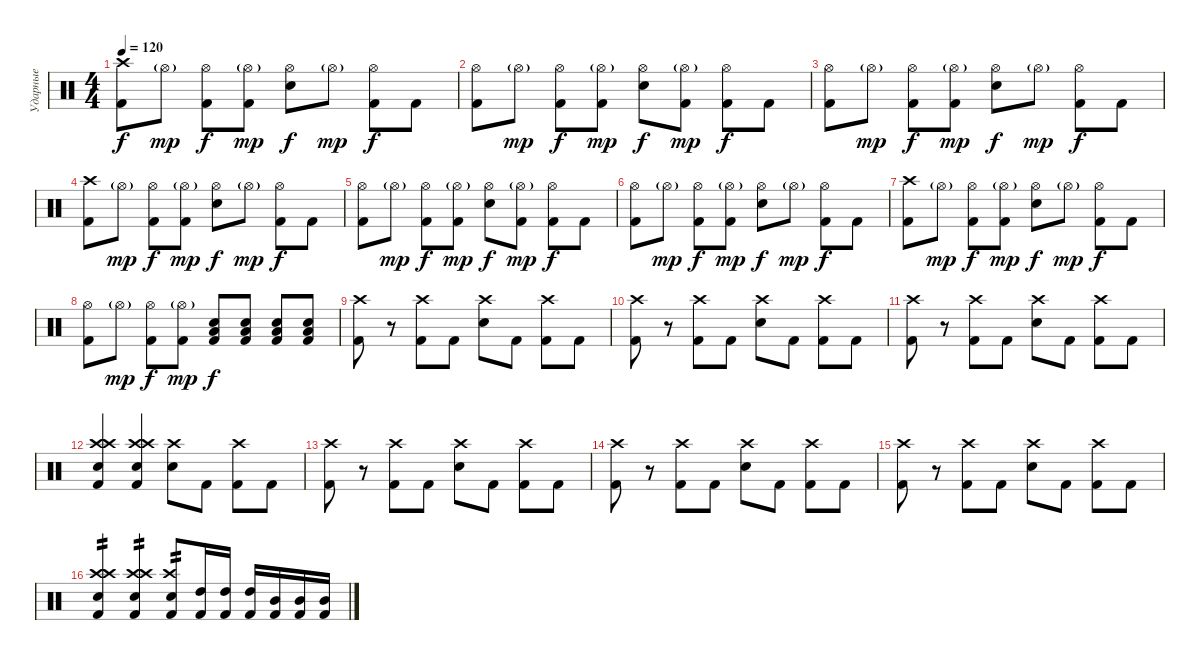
\track ("Ударные" "Ударные") {instrument percussion}
\staff {score}
\articulation defaults
\ts (4 4)
\tempo 120
\clef neutral
\ks c
("Kick (hit) 2" "Crash high (hit)").8{dy f} "Hi-Hat (open)"{g}.8{dy mp} ("Hi-Hat (open)" "Kick (hit) 2").8{dy f} ("Hi-Hat (open)"{g} "Kick (hit) 2").8{dy mp} ("Hi-Hat (open)" "Snare (hit) 2").8{dy f} "Hi-Hat (open)"{g}.8{dy mp} ("Hi-Hat (open)" "Kick (hit) 2").8{dy f} "Kick (hit) 2".8 |
("Kick (hit) 2" "Hi-Hat (open)").8 "Hi-Hat (open)"{g}.8{dy mp} ("Hi-Hat (open)" "Kick (hit) 2").8{dy f} ("Hi-Hat (open)"{g} "Kick (hit) 2").8{dy mp} ("Hi-Hat (open)" "Snare (hit) 2").8{dy f} ("Hi-Hat (open)"{g} "Kick (hit) 2").8{dy mp} ("Hi-Hat (open)" "Kick (hit) 2").8{dy f} "Kick (hit) 2".8 |
("Kick (hit) 2" "Hi-Hat (open)").8 "Hi-Hat (open)"{g}.8{dy mp} ("Hi-Hat (open)" "Kick (hit) 2").8{dy f} ("Hi-Hat (open)"{g} "Kick (hit) 2").8{dy mp} ("Hi-Hat (open)" "Snare (hit) 2").8{dy f} "Hi-Hat (open)"{g}.8{dy mp} ("Hi-Hat (open)" "Kick (hit) 2").8{dy f} "Kick (hit) 2".8 |
("Kick (hit) 2" "Crash high (hit)").8 "Hi-Hat (open)"{g}.8{dy mp} ("Hi-Hat (open)" "Kick (hit) 2").8{dy f} ("Hi-Hat (open)"{g} "Kick (hit) 2").8{dy mp} ("Hi-Hat (open)" "Snare (hit) 2").8{dy f} "Hi-Hat (open)"{g}.8{dy mp} ("Hi-Hat (open)" "Kick (hit) 2").8{dy f} "Kick (hit) 2".8 |
("Kick (hit) 2" "Hi-Hat (open)").8 "Hi-Hat (open)"{g}.8{dy mp} ("Hi-Hat (open)" "Kick (hit) 2").8{dy f} ("Hi-Hat (open)"{g} "Kick (hit) 2").8{dy mp} ("Hi-Hat (open)" "Snare (hit) 2").8{dy f} ("Hi-Hat (open)"{g} "Kick (hit) 2").8{dy mp} ("Hi-Hat (open)" "Kick (hit) 2").8{dy f} "Kick (hit) 2".8 |
("Kick (hit) 2" "Hi-Hat (open)").8 "Hi-Hat (open)"{g}.8{dy mp} ("Hi-Hat (open)" "Kick (hit) 2").8{dy f} ("Hi-Hat (open)"{g} "Kick (hit) 2").8{dy mp} ("Hi-Hat (open)" "Snare (hit) 2").8{dy f} "Hi-Hat (open)"{g}.8{dy mp} ("Hi-Hat (open)" "Kick (hit) 2").8{dy f} "Kick (hit) 2".8 |
("Kick (hit) 2" "Crash high (hit)").8 "Hi-Hat (open)"{g}.8{dy mp} ("Hi-Hat (open)" "Kick (hit) 2").8{dy f} ("Hi-Hat (open)"{g} "Kick (hit) 2").8{dy mp} ("Hi-Hat (open)" "Snare (hit) 2").8{dy f} "Hi-Hat (open)"{g}.8{dy mp} ("Hi-Hat (open)" "Kick (hit) 2").8{dy f} "Kick (hit) 2".8 |
("Kick (hit) 2" "Hi-Hat (open)").8 "Hi-Hat (open)"{g}.8{dy mp} ("Hi-Hat (open)" "Kick (hit) 2").8{dy f} ("Hi-Hat (open)"{g} "Kick (hit) 2").8{dy mp} ("Low Floor Tom (hit)" "Snare (hit) 2" "Kick (hit) 2").8{dy f} ("Low Floor Tom (hit)" "Snare (hit) 2" "Kick (hit) 2").8 ("Low Floor Tom (hit)" "Snare (hit) 2" "Kick (hit) 2").8 ("Low Floor Tom (hit)" "Snare (hit) 2" "Kick (hit) 2").8 |
("Kick (hit) 2" "Crash high (hit)").8 r.8 ("Crash high (hit)" "Kick (hit) 2").8 "Kick (hit) 2".8 ("Crash high (hit)" "Snare (hit) 2").8 "Kick (hit) 2".8 ("Crash high (hit)" "Kick (hit) 2").8 "Kick (hit) 2".8 |
("Kick (hit) 2" "Crash high (hit)").8 r.8 ("Crash high (hit)" "Kick (hit) 2").8 "Kick (hit) 2".8 ("Crash high (hit)" "Snare (hit) 2").8 "Kick (hit) 2".8 ("Crash high (hit)" "Kick (hit) 2").8 "Kick (hit) 2".8 |
("Kick (hit) 2" "Crash high (hit)").8 r.8 ("Crash high (hit)" "Kick (hit) 2").8 "Kick (hit) 2".8 ("Crash high (hit)" "Snare (hit) 2").8 "Kick (hit) 2".8 ("Crash high (hit)" "Kick (hit) 2").8 "Kick (hit) 2".8 |
("Crash high (hit)" "Crash high (hit)" "Snare (hit) 2" "Kick (hit) 2").4 ("Crash high (hit)" "Crash high (hit)" "Snare (hit) 2" "Kick (hit) 2").4 ("Crash high (hit)" "Snare (hit) 2").8 "Kick (hit) 2".8 ("Crash high (hit)" "Kick (hit) 2").8 "Kick (hit) 2".8 |
("Kick (hit) 2" "Crash high (hit)").8 r.8 ("Crash high (hit)" "Kick (hit) 2").8 "Kick (hit) 2".8 ("Crash high (hit)" "Snare (hit) 2").8 "Kick (hit) 2".8 ("Crash high (hit)" "Kick (hit) 2").8 "Kick (hit) 2".8 |
("Kick (hit) 2" "Crash high (hit)").8 r.8 ("Crash high (hit)" "Kick (hit) 2").8 "Kick (hit) 2".8 ("Crash high (hit)" "Snare (hit) 2").8 "Kick (hit) 2".8 ("Crash high (hit)" "Kick (hit) 2").8 "Kick (hit) 2".8 |
("Kick (hit) 2" "Crash high (hit)").8 r.8 ("Crash high (hit)" "Kick (hit) 2").8 "Kick (hit) 2".8 ("Crash high (hit)" "Snare (hit) 2").8 "Kick (hit) 2".8 ("Crash high (hit)" "Kick (hit) 2").8 "Kick (hit) 2".8 |
("Crash high (hit)" "Crash high (hit)" "Snare (hit) 2" "Kick (hit) 2").4{tp 2} ("Crash high (hit)" "Crash high (hit)" "Snare (hit) 2" "Kick (hit) 2").4{tp 2} ("Crash high (hit)" "Snare (hit) 2" "Kick (hit) 2").8{tp 2} ("High Tom (hit)" "Kick (hit) 2").16 ("High Tom (hit)" "Kick (hit) 2").16 ("High Tom (hit)" "Kick (hit) 2").16 ("Mid Tom (hit)" "Kick (hit) 2").16 ("Mid Tom (hit)" "Kick (hit) 2").16 ("Mid Tom (hit)" "Kick (hit) 2").16
